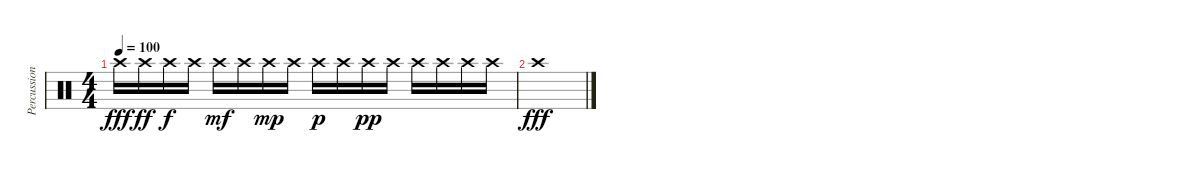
\track ("Percussions" "Percussion") {instrument percussion}
\staff {score}
\articulation defaults
\ts (4 4)
\tempo 100
\clef neutral
\ks c "Crash high (hit)".16{dy fff} "Crash high (hit)".16{dy ff} "Crash high (hit)".16{dy f} "Crash high (hit)".16 "Crash high (hit)".16{dy mf} "Crash high (hit)".16 "Crash high (hit)".16{dy mp} "Crash high (hit)".16 "Crash high (hit)".16{dy p} "Crash high (hit)".16 "Crash high (hit)".16{dy pp} "Crash high (hit)".16 "Crash high (hit)".16 "Crash high (hit)".16 "Crash high (hit)".16 "Crash high (hit)".16
|
"Crash high (hit)".1{dy fff}
